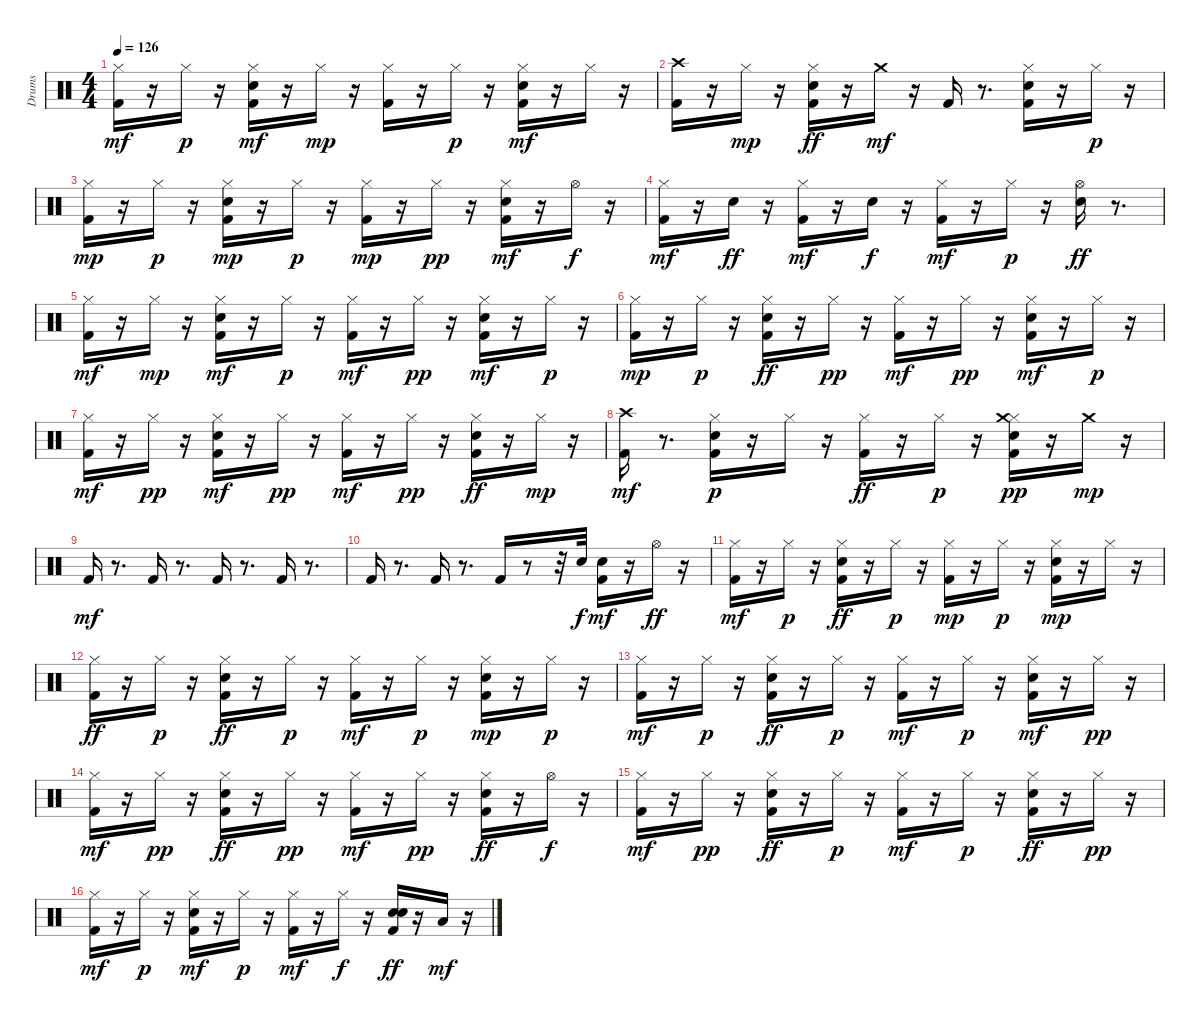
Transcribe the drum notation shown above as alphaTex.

\track ("Drums" "Drums") {instrument percussion}
\staff {score}
\articulation defaults
\ts (4 4)
\tempo 126
\clef neutral
\ks c
("Kick (hit) 2" "Hi-Hat (closed)").16{dy mf} r.16 "Hi-Hat (closed)".16{dy p} r.16 ("Snare (hit) 2" "Kick (hit) 2" "Hi-Hat (closed)").16{dy mf} r.16 "Hi-Hat (closed)".16{dy mp} r.16 ("Kick (hit) 2" "Hi-Hat (closed)").16 r.16 "Hi-Hat (closed)".16{dy p} r.16 ("Snare (hit) 2" "Kick (hit) 2" "Hi-Hat (closed)").16{dy mf} r.16 "Hi-Hat (closed)".16 r.16 |
("Crash high (hit)" "Kick (hit) 2").16 r.16 "Hi-Hat (closed)".16{dy mp} r.16 ("Hi-Hat (closed)" "Kick (hit) 2" "Snare (hit) 2").16{dy ff} r.16 "Crash medium (hit)".16{dy mf} r.16 "Kick (hit) 2".16 r.8{d} ("Hi-Hat (closed)" "Snare (hit) 2" "Kick (hit) 2").16 r.16 "Hi-Hat (closed)".16{dy p} r.16 |
("Hi-Hat (closed)" "Kick (hit) 2").16{dy mp} r.16 "Hi-Hat (closed)".16{dy p} r.16 ("Hi-Hat (closed)" "Kick (hit) 2" "Snare (hit) 2").16{dy mp} r.16 "Hi-Hat (closed)".16{dy p} r.16 ("Hi-Hat (closed)" "Kick (hit) 2").16{dy mp} r.16 "Hi-Hat (closed)".16{dy pp} r.16 ("Snare (hit) 2" "Hi-Hat (closed)" "Kick (hit) 2").16{dy mf} r.16 "Hi-Hat (open)".16{dy f} r.16 |
("Hi-Hat (closed)" "Kick (hit) 2").16{dy mf} r.16 "Snare (hit) 2".16{dy ff} r.16 ("Hi-Hat (closed)" "Kick (hit) 2").16{dy mf} r.16 "Snare (hit) 2".16{dy f} r.16 ("Kick (hit) 2" "Hi-Hat (closed)").16{dy mf} r.16 "Hi-Hat (closed)".16{dy p} r.16 ("Snare (hit) 2" "Hi-Hat (open)").16{dy ff} r.8{d} |
("Kick (hit) 2" "Hi-Hat (closed)").16{dy mf} r.16 "Hi-Hat (closed)".16{dy mp} r.16 ("Snare (hit) 2" "Hi-Hat (closed)" "Kick (hit) 2").16{dy mf} r.16 "Hi-Hat (closed)".16{dy p} r.16 ("Hi-Hat (closed)" "Kick (hit) 2").16{dy mf} r.16 "Hi-Hat (closed)".16{dy pp} r.16 ("Snare (hit) 2" "Kick (hit) 2" "Hi-Hat (closed)").16{dy mf} r.16 "Hi-Hat (closed)".16{dy p} r.16 |
("Kick (hit) 2" "Hi-Hat (closed)").16{dy mp} r.16 "Hi-Hat (closed)".16{dy p} r.16 ("Kick (hit) 2" "Snare (hit) 2" "Hi-Hat (closed)").16{dy ff} r.16 "Hi-Hat (closed)".16{dy pp} r.16 ("Kick (hit) 2" "Hi-Hat (closed)").16{dy mf} r.16 "Hi-Hat (closed)".16{dy pp} r.16 ("Snare (hit) 2" "Kick (hit) 2" "Hi-Hat (closed)").16{dy mf} r.16 "Hi-Hat (closed)".16{dy p} r.16 |
("Hi-Hat (closed)" "Kick (hit) 2").16{dy mf} r.16 "Hi-Hat (closed)".16{dy pp} r.16 ("Kick (hit) 2" "Hi-Hat (closed)" "Snare (hit) 2").16{dy mf} r.16 "Hi-Hat (closed)".16{dy pp} r.16 ("Kick (hit) 2" "Hi-Hat (closed)").16{dy mf} r.16 "Hi-Hat (closed)".16{dy pp} r.16 ("Hi-Hat (closed)" "Kick (hit) 2" "Snare (hit) 2").16{dy ff} r.16 "Hi-Hat (closed)".16{dy mp} r.16 |
("Kick (hit) 2" "Crash high (hit)").16{dy mf} r.8{d} ("Kick (hit) 2" "Snare (hit) 2" "Hi-Hat (closed)").16{dy p} r.16 "Hi-Hat (closed)".16 r.16 ("Kick (hit) 2" "Hi-Hat (closed)").16{dy ff} r.16 "Hi-Hat (closed)".16{dy p} r.16 ("Snare (hit) 2" "Kick (hit) 2" "Hi-Hat (closed)" "Crash medium (hit)").16{dy pp} r.16 "Crash medium (hit)".16{dy mp} r.16 |
"Kick (hit) 2".16{dy mf} r.8{d} "Kick (hit) 2".16 r.8{d} "Kick (hit) 2".16 r.8{d} "Kick (hit) 2".16 r.8{d} |
"Kick (hit) 2".16 r.8{d} "Kick (hit) 2".16 r.8{d} "Kick (hit) 2".16 r.8 r.32 "Snare (hit) 2".32{dy f} ("Snare (hit) 2" "Kick (hit) 2").16{dy mf} r.16 "Hi-Hat (open)".16{dy ff} r.16 |
("Kick (hit) 2" "Hi-Hat (closed)").16{dy mf} r.16 "Hi-Hat (closed)".16{dy p} r.16 ("Kick (hit) 2" "Hi-Hat (closed)" "Snare (hit) 2").16{dy ff} r.16 "Hi-Hat (closed)".16{dy p} r.16 ("Kick (hit) 2" "Hi-Hat (closed)").16{dy mp} r.16 "Hi-Hat (closed)".16{dy p} r.16 ("Snare (hit) 2" "Kick (hit) 2" "Hi-Hat (closed)").16{dy mp} r.16 "Hi-Hat (closed)".16 r.16 |
("Kick (hit) 2" "Hi-Hat (closed)").16{dy ff} r.16 "Hi-Hat (closed)".16{dy p} r.16 ("Kick (hit) 2" "Snare (hit) 2" "Hi-Hat (closed)").16{dy ff} r.16 "Hi-Hat (closed)".16{dy p} r.16 ("Kick (hit) 2" "Hi-Hat (closed)").16{dy mf} r.16 "Hi-Hat (closed)".16{dy p} r.16 ("Kick (hit) 2" "Hi-Hat (closed)" "Snare (hit) 2").16{dy mp} r.16 "Hi-Hat (closed)".16{dy p} r.16 |
("Kick (hit) 2" "Hi-Hat (closed)").16{dy mf} r.16 "Hi-Hat (closed)".16{dy p} r.16 ("Kick (hit) 2" "Hi-Hat (closed)" "Snare (hit) 2").16{dy ff} r.16 "Hi-Hat (closed)".16{dy p} r.16 ("Kick (hit) 2" "Hi-Hat (closed)").16{dy mf} r.16 "Hi-Hat (closed)".16{dy p} r.16 ("Snare (hit) 2" "Kick (hit) 2" "Hi-Hat (closed)").16{dy mf} r.16 "Hi-Hat (closed)".16{dy pp} r.16 |
("Kick (hit) 2" "Hi-Hat (closed)").16{dy mf} r.16 "Hi-Hat (closed)".16{dy pp} r.16 ("Hi-Hat (closed)" "Kick (hit) 2" "Snare (hit) 2").16{dy ff} r.16 "Hi-Hat (closed)".16{dy pp} r.16 ("Hi-Hat (closed)" "Kick (hit) 2").16{dy mf} r.16 "Hi-Hat (closed)".16{dy pp} r.16 ("Kick (hit) 2" "Snare (hit) 2" "Hi-Hat (closed)").16{dy ff} r.16 "Hi-Hat (open)".16{dy f} r.16 |
("Kick (hit) 2" "Hi-Hat (closed)").16{dy mf} r.16 "Hi-Hat (closed)".16{dy pp} r.16 ("Snare (hit) 2" "Kick (hit) 2" "Hi-Hat (closed)").16{dy ff} r.16 "Hi-Hat (closed)".16{dy p} r.16 ("Kick (hit) 2" "Hi-Hat (closed)").16{dy mf} r.16 "Hi-Hat (closed)".16{dy p} r.16 ("Kick (hit) 2" "Hi-Hat (closed)" "Snare (hit) 2").16{dy ff} r.16 "Hi-Hat (closed)".16{dy pp} r.16 |
("Hi-Hat (closed)" "Kick (hit) 2").16{dy mf} r.16 "Hi-Hat (closed)".16{dy p} r.16 ("Snare (hit) 2" "Hi-Hat (closed)" "Kick (hit) 2").16{dy mf} r.16 "Hi-Hat (closed)".16{dy p} r.16 ("Hi-Hat (closed)" "Kick (hit) 2").16{dy mf} r.16 "Hi-Hat (closed)".16{dy f} r.16 ("Snare (hit) 2" "Kick (hit) 2" "Snare (hit) 2").16{dy ff} r.16 "Low Floor Tom (hit)".16{dy mf} r.16
